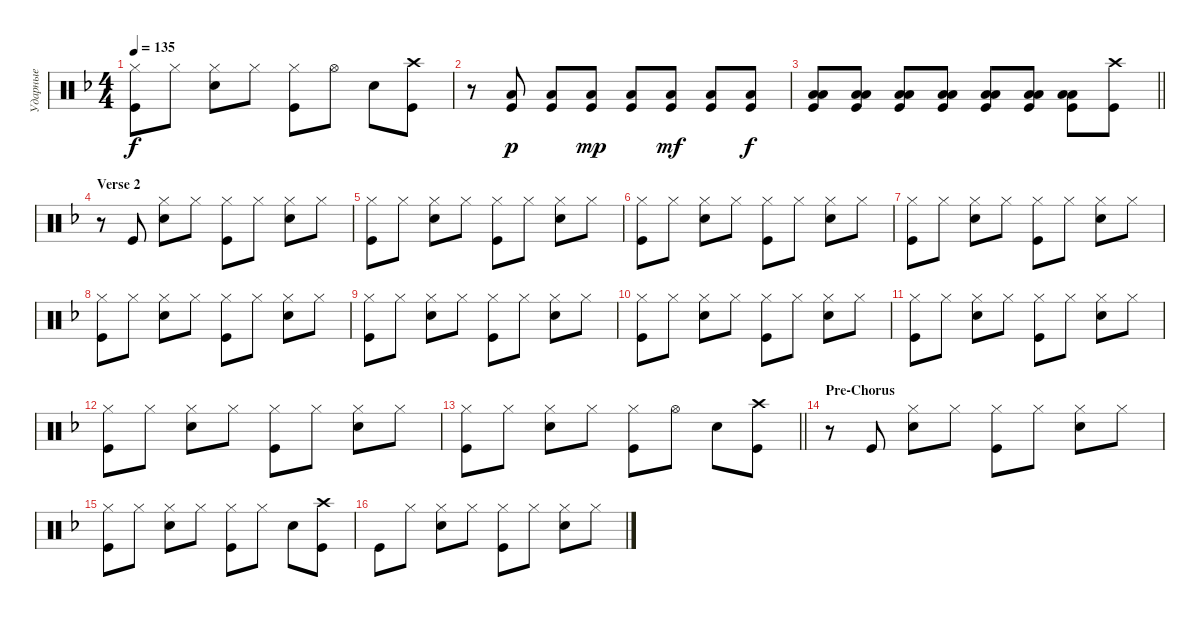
\track ("Ударные" "Ударные") {instrument percussion}
\staff {score}
\articulation defaults
\ts (4 4)
\tempo 135
\clef neutral
\ks dminor
("Hi-Hat (closed)" "Kick (hit)").8{dy f} "Hi-Hat (closed)".8 ("Hi-Hat (closed)" "Snare (hit) 2").8 "Hi-Hat (closed)".8 ("Hi-Hat (closed)" "Kick (hit)").8 "Hi-Hat (open)".8 "Snare (hit) 2".8 ("Kick (hit)" "Crash high (hit)").8 |
r.8 ("Kick (hit)" "Low Floor Tom (hit)").8{dy p} ("Kick (hit)" "Low Floor Tom (hit)").8 ("Kick (hit)" "Low Floor Tom (hit)").8{dy mp} ("Kick (hit)" "Low Floor Tom (hit)").8 ("Kick (hit)" "Low Floor Tom (hit)").8{dy mf} ("Kick (hit)" "Low Floor Tom (hit)").8 ("Kick (hit)" "Low Floor Tom (hit)").8{dy f} |
\barLineRight lightlight
("Kick (hit)" "Low Floor Tom (hit)" "Low Floor Tom (hit)").8{bd 120} ("Kick (hit)" "Low Floor Tom (hit)" "Low Floor Tom (hit)").8{bd 120} ("Kick (hit)" "Low Floor Tom (hit)" "Low Floor Tom (hit)").8{bd 120} ("Kick (hit)" "Low Floor Tom (hit)" "Low Floor Tom (hit)").8{bd 120} ("Kick (hit)" "Low Floor Tom (hit)" "Low Floor Tom (hit)").8{bd 120} ("Kick (hit)" "Low Floor Tom (hit)" "Low Floor Tom (hit)").8{bd 120} ("Kick (hit)" "Low Floor Tom (hit)" "Low Floor Tom (hit)").8{bd 120} ("Kick (hit)" "Crash high (hit)").8 |
\section ("" "Verse 2")
r.8 "Kick (hit)".8 ("Hi-Hat (closed)" "Snare (hit) 2").8 "Hi-Hat (closed)".8 ("Hi-Hat (closed)" "Kick (hit)").8 "Hi-Hat (closed)".8 ("Hi-Hat (closed)" "Snare (hit) 2").8 "Hi-Hat (closed)".8 |
("Hi-Hat (closed)" "Kick (hit)").8 "Hi-Hat (closed)".8 ("Hi-Hat (closed)" "Snare (hit) 2").8 "Hi-Hat (closed)".8 ("Hi-Hat (closed)" "Kick (hit)").8 "Hi-Hat (closed)".8 ("Hi-Hat (closed)" "Snare (hit) 2").8 "Hi-Hat (closed)".8 |
("Hi-Hat (closed)" "Kick (hit)").8 "Hi-Hat (closed)".8 ("Hi-Hat (closed)" "Snare (hit) 2").8 "Hi-Hat (closed)".8 ("Hi-Hat (closed)" "Kick (hit)").8 "Hi-Hat (closed)".8 ("Hi-Hat (closed)" "Snare (hit) 2").8 "Hi-Hat (closed)".8 |
("Hi-Hat (closed)" "Kick (hit)").8 "Hi-Hat (closed)".8 ("Hi-Hat (closed)" "Snare (hit) 2").8 "Hi-Hat (closed)".8 ("Hi-Hat (closed)" "Kick (hit)").8 "Hi-Hat (closed)".8 ("Hi-Hat (closed)" "Snare (hit) 2").8 "Hi-Hat (closed)".8 |
("Hi-Hat (closed)" "Kick (hit)").8 "Hi-Hat (closed)".8 ("Hi-Hat (closed)" "Snare (hit) 2").8 "Hi-Hat (closed)".8 ("Hi-Hat (closed)" "Kick (hit)").8 "Hi-Hat (closed)".8 ("Hi-Hat (closed)" "Snare (hit) 2").8 "Hi-Hat (closed)".8 |
("Hi-Hat (closed)" "Kick (hit)").8 "Hi-Hat (closed)".8 ("Hi-Hat (closed)" "Snare (hit) 2").8 "Hi-Hat (closed)".8 ("Hi-Hat (closed)" "Kick (hit)").8 "Hi-Hat (closed)".8 ("Hi-Hat (closed)" "Snare (hit) 2").8 "Hi-Hat (closed)".8 |
("Hi-Hat (closed)" "Kick (hit)").8 "Hi-Hat (closed)".8 ("Hi-Hat (closed)" "Snare (hit) 2").8 "Hi-Hat (closed)".8 ("Hi-Hat (closed)" "Kick (hit)").8 "Hi-Hat (closed)".8 ("Hi-Hat (closed)" "Snare (hit) 2").8 "Hi-Hat (closed)".8 |
("Hi-Hat (closed)" "Kick (hit)").8 "Hi-Hat (closed)".8 ("Hi-Hat (closed)" "Snare (hit) 2").8 "Hi-Hat (closed)".8 ("Hi-Hat (closed)" "Kick (hit)").8 "Hi-Hat (closed)".8 ("Hi-Hat (closed)" "Snare (hit) 2").8 "Hi-Hat (closed)".8 |
("Hi-Hat (closed)" "Kick (hit)").8 "Hi-Hat (closed)".8 ("Hi-Hat (closed)" "Snare (hit) 2").8 "Hi-Hat (closed)".8 ("Hi-Hat (closed)" "Kick (hit)").8 "Hi-Hat (closed)".8 ("Hi-Hat (closed)" "Snare (hit) 2").8 "Hi-Hat (closed)".8 |
\barLineRight lightlight
("Hi-Hat (closed)" "Kick (hit)").8 "Hi-Hat (closed)".8 ("Hi-Hat (closed)" "Snare (hit) 2").8 "Hi-Hat (closed)".8 ("Hi-Hat (closed)" "Kick (hit)").8 "Hi-Hat (open)".8 "Snare (hit) 2".8 ("Kick (hit)" "Crash high (hit)").8 |
\section ("" "Pre-Chorus")
r.8 "Kick (hit)".8 ("Hi-Hat (closed)" "Snare (hit) 2").8 "Hi-Hat (closed)".8 ("Hi-Hat (closed)" "Kick (hit)").8 "Hi-Hat (closed)".8 ("Hi-Hat (closed)" "Snare (hit) 2").8 "Hi-Hat (closed)".8 |
("Hi-Hat (closed)" "Kick (hit)").8 "Hi-Hat (closed)".8 ("Hi-Hat (closed)" "Snare (hit) 2").8 "Hi-Hat (closed)".8 ("Hi-Hat (closed)" "Kick (hit)").8 "Hi-Hat (closed)".8 "Snare (hit) 2".8 ("Kick (hit)" "Crash high (hit)").8 |
"Kick (hit)".8 "Hi-Hat (closed)".8 ("Hi-Hat (closed)" "Snare (hit) 2").8 "Hi-Hat (closed)".8 ("Hi-Hat (closed)" "Kick (hit)").8 "Hi-Hat (closed)".8 ("Hi-Hat (closed)" "Snare (hit) 2").8 "Hi-Hat (closed)".8
